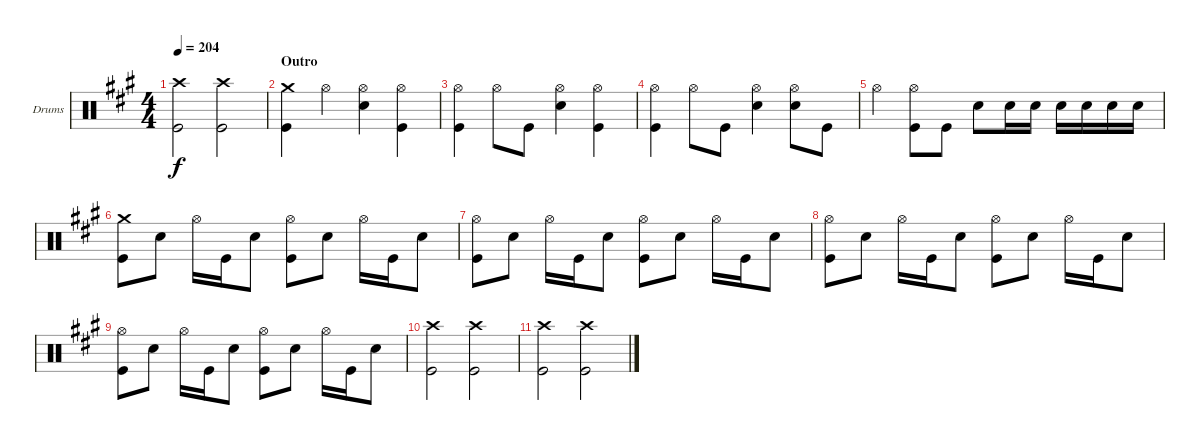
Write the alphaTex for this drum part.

\bracketExtendMode groupsimilarinstruments
\firstSystemTrackNameOrientation horizontal
\otherSystemsTrackNameOrientation horizontal
\track ("Drumkit" "Drums") {instrument percussion}
\staff {score}
\articulation defaults
\ts (4 4)
\tempo 204
\clef neutral
\ks a
("Crash high (hit)" "Kick (hit)").2{dy f} ("Crash high (hit)" "Kick (hit)").2 |
\section ("" "Outro")
("Crash medium (hit)" "Kick (hit)").4 "Hi-Hat (open)".4 ("Hi-Hat (open)" "Snare (hit) 2").4 ("Hi-Hat (open)" "Kick (hit)").4 |
("Hi-Hat (open)" "Kick (hit)").4 "Hi-Hat (open)".8 "Kick (hit)".8 ("Hi-Hat (open)" "Snare (hit) 2").4 ("Hi-Hat (open)" "Kick (hit)").4 |
("Hi-Hat (open)" "Kick (hit)").4 "Hi-Hat (open)".8 "Kick (hit)".8 ("Hi-Hat (open)" "Snare (hit) 2").4 ("Hi-Hat (open)" "Snare (hit) 2").8 "Kick (hit)".8 |
"Hi-Hat (open)".4 ("Hi-Hat (open)" "Kick (hit)").8 "Kick (hit)".8 "Snare (hit) 2".8 "Snare (hit) 2".16 "Snare (hit) 2".16 "Snare (hit) 2".16 "Snare (hit) 2".16 "Snare (hit) 2".16 "Snare (hit) 2".16 |
("Crash medium (hit)" "Kick (hit)").8 "Snare (hit) 2".8 "Hi-Hat (open)".16 "Kick (hit)".16 "Snare (hit) 2".8 ("Hi-Hat (open)" "Kick (hit)").8 "Snare (hit) 2".8 "Hi-Hat (open)".16 "Kick (hit)".16 "Snare (hit) 2".8 |
("Hi-Hat (open)" "Kick (hit)").8 "Snare (hit) 2".8 "Hi-Hat (open)".16 "Kick (hit)".16 "Snare (hit) 2".8 ("Hi-Hat (open)" "Kick (hit)").8 "Snare (hit) 2".8 "Hi-Hat (open)".16 "Kick (hit)".16 "Snare (hit) 2".8 |
("Hi-Hat (open)" "Kick (hit)").8 "Snare (hit) 2".8 "Hi-Hat (open)".16 "Kick (hit)".16 "Snare (hit) 2".8 ("Hi-Hat (open)" "Kick (hit)").8 "Snare (hit) 2".8 "Hi-Hat (open)".16 "Kick (hit)".16 "Snare (hit) 2".8 |
("Hi-Hat (open)" "Kick (hit)").8 "Snare (hit) 2".8 "Hi-Hat (open)".16 "Kick (hit)".16 "Snare (hit) 2".8 ("Hi-Hat (open)" "Kick (hit)").8 "Snare (hit) 2".8 "Hi-Hat (open)".16 "Kick (hit)".16 "Snare (hit) 2".8 |
("Crash high (hit)" "Kick (hit)").2 ("Crash high (hit)" "Kick (hit)").2 |
("Crash high (hit)" "Kick (hit)").2 ("Crash high (hit)" "Kick (hit)").2
